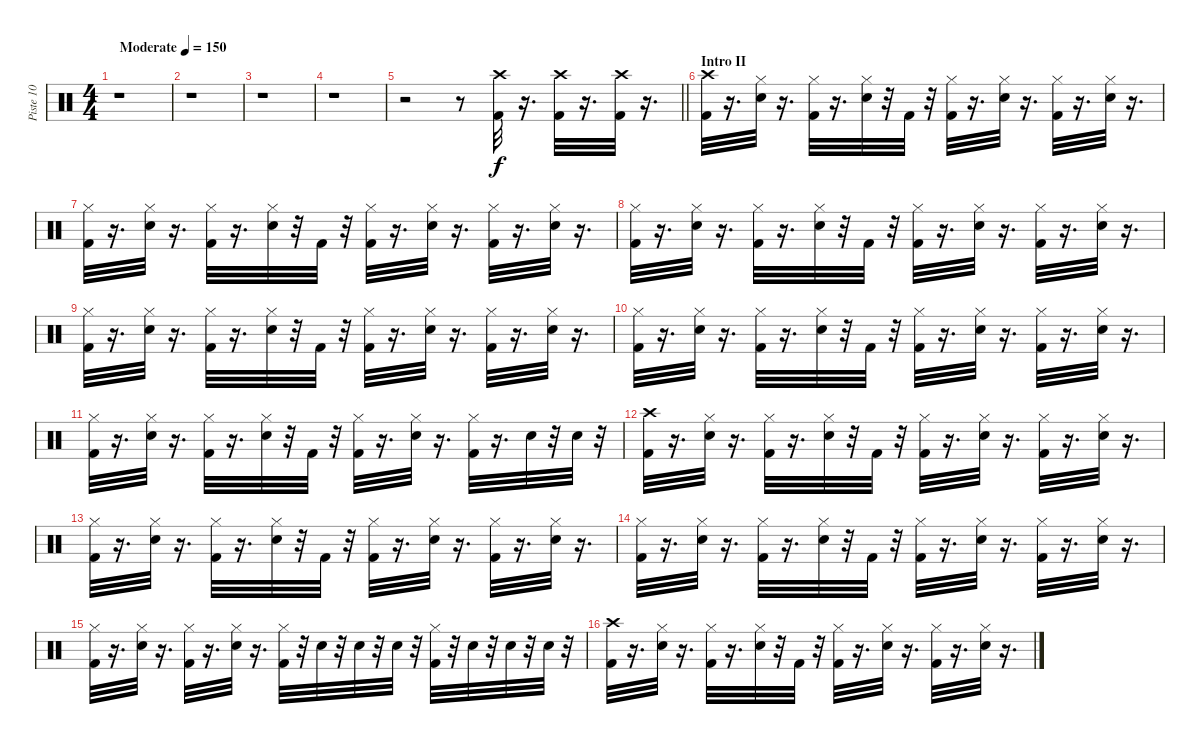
\track ("Piste 10" "Piste 10") {instrument percussion}
\staff {score}
\articulation defaults
\ts (4 4)
\tempo (150 "Moderate")
\clef neutral
\ks c
r.1{dy f} |
r.1 |
r.1 |
r.1 |
\barLineRight lightlight
r.2 r.8 ("Crash high (hit)" "Kick (hit) 2").32{volume 13} r.16{d} ("Crash high (hit)" "Kick (hit) 2").32 r.16{d} ("Crash high (hit)" "Kick (hit) 2").32 r.16{d} |
\section ("" "Intro II")
("Crash high (hit)" "Kick (hit) 2").32 r.16{d} ("Hi-Hat (closed)" "Snare (hit) 2").32 r.16{d} ("Hi-Hat (closed)" "Kick (hit) 2").32 r.16{d} ("Hi-Hat (closed)" "Snare (hit) 2").32 r.32 "Kick (hit) 2".32 r.32 ("Hi-Hat (closed)" "Kick (hit) 2").32 r.16{d} ("Hi-Hat (closed)" "Snare (hit) 2").32 r.16{d} ("Hi-Hat (closed)" "Kick (hit) 2").32 r.16{d} ("Hi-Hat (closed)" "Snare (hit) 2").32 r.16{d} |
("Hi-Hat (closed)" "Kick (hit) 2").32 r.16{d} ("Hi-Hat (closed)" "Snare (hit) 2").32 r.16{d} ("Hi-Hat (closed)" "Kick (hit) 2").32 r.16{d} ("Hi-Hat (closed)" "Snare (hit) 2").32 r.32 "Kick (hit) 2".32 r.32 ("Hi-Hat (closed)" "Kick (hit) 2").32 r.16{d} ("Hi-Hat (closed)" "Snare (hit) 2").32 r.16{d} ("Hi-Hat (closed)" "Kick (hit) 2").32 r.16{d} ("Hi-Hat (closed)" "Snare (hit) 2").32 r.16{d} |
("Hi-Hat (closed)" "Kick (hit) 2").32 r.16{d} ("Hi-Hat (closed)" "Snare (hit) 2").32 r.16{d} ("Hi-Hat (closed)" "Kick (hit) 2").32 r.16{d} ("Hi-Hat (closed)" "Snare (hit) 2").32 r.32 "Kick (hit) 2".32 r.32 ("Hi-Hat (closed)" "Kick (hit) 2").32 r.16{d} ("Hi-Hat (closed)" "Snare (hit) 2").32 r.16{d} ("Hi-Hat (closed)" "Kick (hit) 2").32 r.16{d} ("Hi-Hat (closed)" "Snare (hit) 2").32 r.16{d} |
("Hi-Hat (closed)" "Kick (hit) 2").32 r.16{d} ("Hi-Hat (closed)" "Snare (hit) 2").32 r.16{d} ("Hi-Hat (closed)" "Kick (hit) 2").32 r.16{d} ("Hi-Hat (closed)" "Snare (hit) 2").32 r.32 "Kick (hit) 2".32 r.32 ("Hi-Hat (closed)" "Kick (hit) 2").32 r.16{d} ("Hi-Hat (closed)" "Snare (hit) 2").32 r.16{d} ("Hi-Hat (closed)" "Kick (hit) 2").32 r.16{d} ("Hi-Hat (closed)" "Snare (hit) 2").32 r.16{d} |
("Hi-Hat (closed)" "Kick (hit) 2").32 r.16{d} ("Hi-Hat (closed)" "Snare (hit) 2").32 r.16{d} ("Hi-Hat (closed)" "Kick (hit) 2").32 r.16{d} ("Hi-Hat (closed)" "Snare (hit) 2").32 r.32 "Kick (hit) 2".32 r.32 ("Hi-Hat (closed)" "Kick (hit) 2").32 r.16{d} ("Hi-Hat (closed)" "Snare (hit) 2").32 r.16{d} ("Hi-Hat (closed)" "Kick (hit) 2").32 r.16{d} ("Hi-Hat (closed)" "Snare (hit) 2").32 r.16{d} |
("Hi-Hat (closed)" "Kick (hit) 2").32 r.16{d} ("Hi-Hat (closed)" "Snare (hit) 2").32 r.16{d} ("Hi-Hat (closed)" "Kick (hit) 2").32 r.16{d} ("Hi-Hat (closed)" "Snare (hit) 2").32 r.32 "Kick (hit) 2".32 r.32 ("Hi-Hat (closed)" "Kick (hit) 2").32 r.16{d} ("Hi-Hat (closed)" "Snare (hit) 2").32 r.16{d} ("Hi-Hat (closed)" "Kick (hit) 2").32 r.16{d} "Snare (hit) 2".32 r.32 "Snare (hit) 2".32 r.32 |
("Crash high (hit)" "Kick (hit) 2").32 r.16{d} ("Hi-Hat (closed)" "Snare (hit) 2").32 r.16{d} ("Hi-Hat (closed)" "Kick (hit) 2").32 r.16{d} ("Hi-Hat (closed)" "Snare (hit) 2").32 r.32 "Kick (hit) 2".32 r.32 ("Hi-Hat (closed)" "Kick (hit) 2").32 r.16{d} ("Hi-Hat (closed)" "Snare (hit) 2").32 r.16{d} ("Hi-Hat (closed)" "Kick (hit) 2").32 r.16{d} ("Hi-Hat (closed)" "Snare (hit) 2").32 r.16{d} |
("Hi-Hat (closed)" "Kick (hit) 2").32 r.16{d} ("Hi-Hat (closed)" "Snare (hit) 2").32 r.16{d} ("Hi-Hat (closed)" "Kick (hit) 2").32 r.16{d} ("Hi-Hat (closed)" "Snare (hit) 2").32 r.32 "Kick (hit) 2".32 r.32 ("Hi-Hat (closed)" "Kick (hit) 2").32 r.16{d} ("Hi-Hat (closed)" "Snare (hit) 2").32 r.16{d} ("Hi-Hat (closed)" "Kick (hit) 2").32 r.16{d} ("Hi-Hat (closed)" "Snare (hit) 2").32 r.16{d} |
("Hi-Hat (closed)" "Kick (hit) 2").32 r.16{d} ("Hi-Hat (closed)" "Snare (hit) 2").32 r.16{d} ("Hi-Hat (closed)" "Kick (hit) 2").32 r.16{d} ("Hi-Hat (closed)" "Snare (hit) 2").32 r.32 "Kick (hit) 2".32 r.32 ("Hi-Hat (closed)" "Kick (hit) 2").32 r.16{d} ("Hi-Hat (closed)" "Snare (hit) 2").32 r.16{d} ("Hi-Hat (closed)" "Kick (hit) 2").32 r.16{d} ("Hi-Hat (closed)" "Snare (hit) 2").32 r.16{d} |
("Hi-Hat (closed)" "Kick (hit) 2").32 r.16{d} ("Hi-Hat (closed)" "Snare (hit) 2").32 r.16{d} ("Hi-Hat (closed)" "Kick (hit) 2").32 r.16{d} ("Hi-Hat (closed)" "Snare (hit) 2").32 r.16{d} ("Kick (hit) 2" "Hi-Hat (closed)").32 r.32 "Snare (hit) 2".32 r.32 "Snare (hit) 2".32 r.32 "Snare (hit) 2".32 r.32 ("Kick (hit) 2" "Hi-Hat (closed)").32 r.32 "Snare (hit) 2".32 r.32 "Snare (hit) 2".32 r.32 "Snare (hit) 2".32 r.32 |
("Crash high (hit)" "Kick (hit) 2").32 r.16{d} ("Hi-Hat (closed)" "Snare (hit) 2").32 r.16{d} ("Hi-Hat (closed)" "Kick (hit) 2").32 r.16{d} ("Hi-Hat (closed)" "Snare (hit) 2").32 r.32 "Kick (hit) 2".32 r.32 ("Hi-Hat (closed)" "Kick (hit) 2").32 r.16{d} ("Hi-Hat (closed)" "Snare (hit) 2").32 r.16{d} ("Hi-Hat (closed)" "Kick (hit) 2").32 r.16{d} ("Hi-Hat (closed)" "Snare (hit) 2").32 r.16{d}
